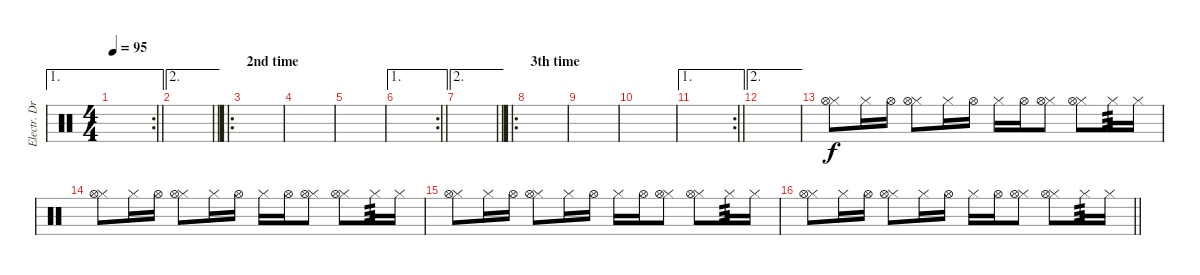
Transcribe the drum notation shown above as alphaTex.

\track ("Electr. Drums" "Electr. Dr") {instrument percussion}
\staff {score}
\articulation defaults
\ae 1
\rc 2
\ts (4 4)
\tempo 95
\clef neutral
\barLineRight lightlight
\ks c
|
\ae 2
\barLineRight lightlight
|
\ro
\section ("" "2nd time")
|
|
|
\ae 1
\rc 2
\barLineRight lightlight
|
\ae 2
\barLineRight lightlight
|
\ro
\section ("" "3th time")
|
|
|
\ae 1
\rc 2
\barLineRight lightlight
|
\ae 2
|
("Hi-Hat (closed)" "Hi-Hat (open)").8{volume 0} "Hi-Hat (closed)".16 "Hi-Hat (open)".16 ("Hi-Hat (closed)" "Hi-Hat (open)").8 "Hi-Hat (closed)".16 "Hi-Hat (open)".16 "Hi-Hat (closed)".16 "Hi-Hat (open)".16 ("Hi-Hat (closed)" "Hi-Hat (open)").8 ("Hi-Hat (closed)" "Hi-Hat (open)").8 "Hi-Hat (closed)".16{tp 3} "Hi-Hat (closed)".16 |
("Hi-Hat (closed)" "Hi-Hat (open)").8 "Hi-Hat (closed)".16 "Hi-Hat (open)".16 ("Hi-Hat (closed)" "Hi-Hat (open)").8 "Hi-Hat (closed)".16 "Hi-Hat (open)".16 "Hi-Hat (closed)".16 "Hi-Hat (open)".16 ("Hi-Hat (closed)" "Hi-Hat (open)").8 ("Hi-Hat (closed)" "Hi-Hat (open)").8 "Hi-Hat (closed)".16{tp 3} "Hi-Hat (closed)".16 |
("Hi-Hat (closed)" "Hi-Hat (open)").8 "Hi-Hat (closed)".16 "Hi-Hat (open)".16 ("Hi-Hat (closed)" "Hi-Hat (open)").8 "Hi-Hat (closed)".16 "Hi-Hat (open)".16 "Hi-Hat (closed)".16 "Hi-Hat (open)".16 ("Hi-Hat (closed)" "Hi-Hat (open)").8 ("Hi-Hat (closed)" "Hi-Hat (open)").8 "Hi-Hat (closed)".16{tp 3} "Hi-Hat (closed)".16 |
\barLineRight lightlight
("Hi-Hat (closed)" "Hi-Hat (open)").8 "Hi-Hat (closed)".16 "Hi-Hat (open)".16 ("Hi-Hat (closed)" "Hi-Hat (open)").8 "Hi-Hat (closed)".16 "Hi-Hat (open)".16 "Hi-Hat (closed)".16 "Hi-Hat (open)".16 ("Hi-Hat (closed)" "Hi-Hat (open)").8 ("Hi-Hat (closed)" "Hi-Hat (open)").8 "Hi-Hat (closed)".16{tp 3} "Hi-Hat (closed)".16
